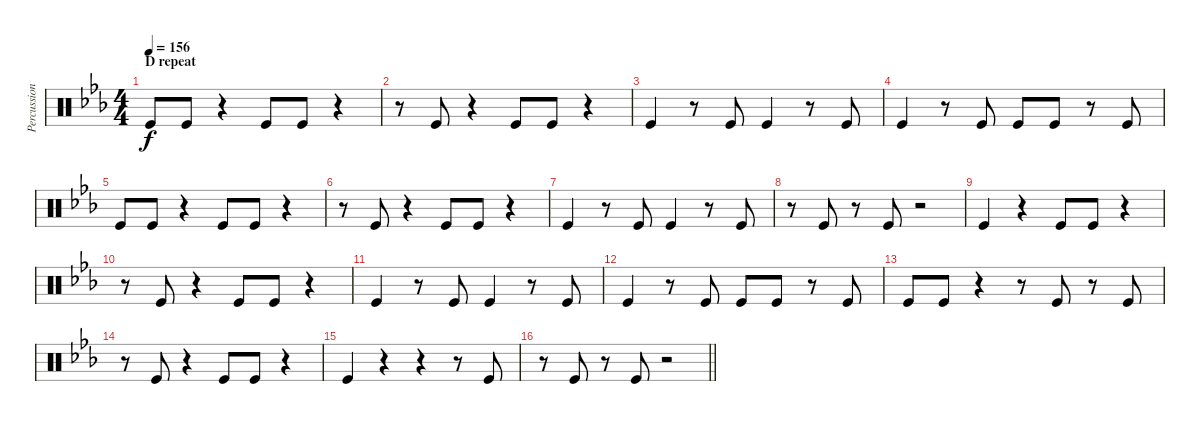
\track ("Percussion foot" "Percussion") {instrument percussion}
\staff {score}
\articulation defaults
\ts (4 4)
\section ("" "D repeat")
\tempo 156
\clef neutral
\ks eb "Kick (hit)".8{dy f} "Kick (hit)".8
r.4 "Kick (hit)".8 "Kick (hit)".8 r.4 |
r.8 "Kick (hit)".8 r.4 "Kick (hit)".8 "Kick (hit)".8 r.4 |
"Kick (hit)".4 r.8 "Kick (hit)".8 "Kick (hit)".4 r.8 "Kick (hit)".8 |
"Kick (hit)".4 r.8 "Kick (hit)".8 "Kick (hit)".8 "Kick (hit)".8 r.8 "Kick (hit)".8 |
"Kick (hit)".8 "Kick (hit)".8 r.4 "Kick (hit)".8 "Kick (hit)".8 r.4 |
r.8 "Kick (hit)".8 r.4 "Kick (hit)".8 "Kick (hit)".8 r.4 |
"Kick (hit)".4 r.8 "Kick (hit)".8 "Kick (hit)".4 r.8 "Kick (hit)".8 |
r.8 "Kick (hit)".8 r.8 "Kick (hit)".8 r.2 |
"Kick (hit)".4 r.4 "Kick (hit)".8 "Kick (hit)".8 r.4 |
r.8 "Kick (hit)".8 r.4 "Kick (hit)".8 "Kick (hit)".8 r.4 |
"Kick (hit)".4 r.8 "Kick (hit)".8 "Kick (hit)".4 r.8 "Kick (hit)".8 |
"Kick (hit)".4 r.8 "Kick (hit)".8 "Kick (hit)".8 "Kick (hit)".8 r.8 "Kick (hit)".8 |
"Kick (hit)".8 "Kick (hit)".8 r.4 r.8 "Kick (hit)".8 r.8 "Kick (hit)".8 |
r.8 "Kick (hit)".8 r.4 "Kick (hit)".8 "Kick (hit)".8 r.4 |
"Kick (hit)".4 r.4 r.4 r.8 "Kick (hit)".8 |
\barLineRight lightlight
r.8 "Kick (hit)".8 r.8 "Kick (hit)".8 r.2
